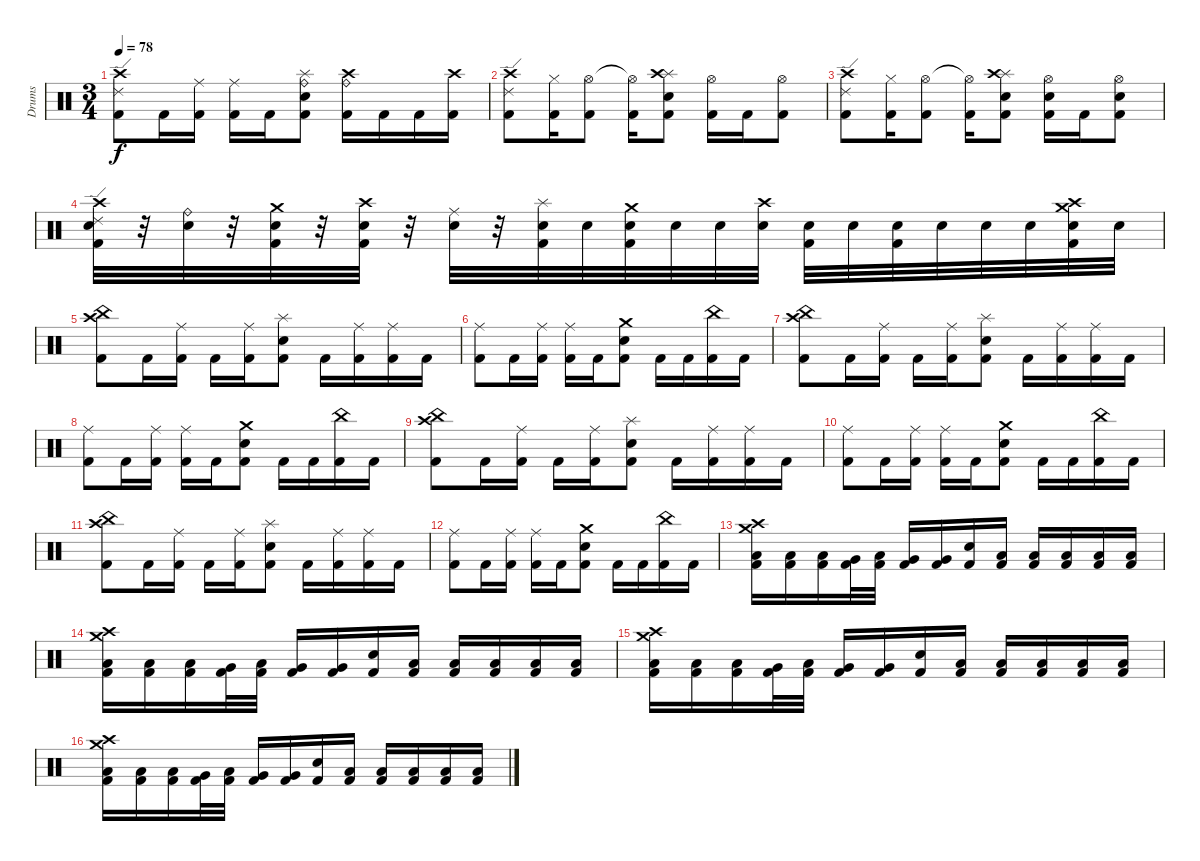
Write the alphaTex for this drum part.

\track ("Drums" "Drums") {instrument percussion}
\staff {score}
\articulation defaults
\ts (3 4)
\tempo 78
\clef neutral
\ks c
("Crash high (hit)" "Ride (edge) 2" "Kick (hit) 2").8{dy f} "Kick (hit) 2".16 ("Ride (middle)" "Kick (hit) 2").16 ("Ride (middle)" "Kick (hit) 2").16 "Kick (hit) 2".16 ("Ride (bell)" "Splash (hit)" "Snare (hit) 2" "Kick (hit) 2").8 ("Ride (bell)" "Crash high (hit)" "Kick (hit) 2").16 "Kick (hit) 2".16 "Kick (hit) 2".16 ("Crash high (hit)" "Kick (hit) 2").16 |
("Crash high (hit)" "Ride (edge) 2" "Kick (hit) 2").8 ("Hi-Hat (closed)" "Kick (hit) 2").16 ("Hi-Hat (open)" "Kick (hit) 2").8 ("Hi-Hat (open)"{t} "Kick (hit) 2").16 ("Splash (hit)" "Crash high (hit)" "Snare (hit) 2" "Kick (hit) 2").8 ("Hi-Hat (open)" "Kick (hit) 2").16 "Kick (hit) 2".16 ("Hi-Hat (open)" "Kick (hit) 2").8 |
("Crash high (hit)" "Ride (edge) 2" "Kick (hit) 2").8 ("Hi-Hat (closed)" "Kick (hit) 2").16 ("Hi-Hat (open)" "Kick (hit) 2").8 ("Hi-Hat (open)"{t} "Kick (hit) 2").16 ("Splash (hit)" "Crash high (hit)" "Snare (hit) 2" "Kick (hit) 2").8 ("Hi-Hat (open)" "Snare (hit) 2" "Kick (hit) 2").16 "Kick (hit) 2".16 ("Hi-Hat (open)" "Snare (hit) 2" "Kick (hit) 2").8 |
("Crash high (hit)" "Ride (edge) 2" "Snare (hit) 2" "Kick (hit) 2").32 r.32 ("Ride (bell)" "Snare (hit) 2").32 r.32 ("Crash medium (hit)" "Snare (hit) 2" "Kick (hit) 2").32 r.32 ("Crash high (hit)" "Snare (hit) 2" "Kick (hit) 2").32 r.32 ("Ride (middle)" "Snare (hit) 2").32 r.32 ("Splash (hit)" "Snare (hit) 2" "Kick (hit) 2").32 "Snare (hit) 2".32 ("Crash medium (hit)" "Snare (hit) 2" "Kick (hit) 2").32 "Snare (hit) 2".32 "Snare (hit) 2".32 ("Crash high (hit)" "Snare (hit) 2").32 ("Snare (hit) 2" "Kick (hit) 2").32 "Snare (hit) 2".32 ("Snare (hit) 2" "Kick (hit) 2").32 "Snare (hit) 2".32 "Snare (hit) 2".32 "Snare (hit) 2".32 ("Crash high (hit)" "Crash medium (hit)" "Snare (hit) 2" "Kick (hit) 2").32 "Snare (hit) 2".32 |
("China (hit)" "Crash high (hit)" "Kick (hit) 2").8 "Kick (hit) 2".16 ("Ride (middle)" "Kick (hit) 2").16 "Kick (hit) 2".16 ("Ride (middle)" "Kick (hit) 2").16 ("Splash (hit)" "Snare (hit) 2" "Kick (hit) 2").8 "Kick (hit) 2".16 ("Ride (middle)" "Kick (hit) 2").16 ("Ride (middle)" "Kick (hit) 2").16 "Kick (hit) 2".16 |
("Ride (middle)" "Kick (hit) 2").8 "Kick (hit) 2".16 ("Ride (middle)" "Kick (hit) 2").16 ("Ride (middle)" "Kick (hit) 2").16 "Kick (hit) 2".16 ("Crash medium (hit)" "Snare (hit) 2" "Kick (hit) 2").8 "Kick (hit) 2".16 "Kick (hit) 2".16 ("China (hit)" "Kick (hit) 2").16 "Kick (hit) 2".16 |
("China (hit)" "Crash high (hit)" "Kick (hit) 2").8 "Kick (hit) 2".16 ("Ride (middle)" "Kick (hit) 2").16 "Kick (hit) 2".16 ("Ride (middle)" "Kick (hit) 2").16 ("Splash (hit)" "Snare (hit) 2" "Kick (hit) 2").8 "Kick (hit) 2".16 ("Ride (middle)" "Kick (hit) 2").16 ("Ride (middle)" "Kick (hit) 2").16 "Kick (hit) 2".16 |
("Ride (middle)" "Kick (hit) 2").8 "Kick (hit) 2".16 ("Ride (middle)" "Kick (hit) 2").16 ("Ride (middle)" "Kick (hit) 2").16 "Kick (hit) 2".16 ("Crash medium (hit)" "Snare (hit) 2" "Kick (hit) 2").8 "Kick (hit) 2".16 "Kick (hit) 2".16 ("China (hit)" "Kick (hit) 2").16 "Kick (hit) 2".16 |
("China (hit)" "Crash high (hit)" "Kick (hit) 2").8 "Kick (hit) 2".16 ("Ride (middle)" "Kick (hit) 2").16 "Kick (hit) 2".16 ("Ride (middle)" "Kick (hit) 2").16 ("Splash (hit)" "Snare (hit) 2" "Kick (hit) 2").8 "Kick (hit) 2".16 ("Ride (middle)" "Kick (hit) 2").16 ("Ride (middle)" "Kick (hit) 2").16 "Kick (hit) 2".16 |
("Ride (middle)" "Kick (hit) 2").8 "Kick (hit) 2".16 ("Ride (middle)" "Kick (hit) 2").16 ("Ride (middle)" "Kick (hit) 2").16 "Kick (hit) 2".16 ("Crash medium (hit)" "Snare (hit) 2" "Kick (hit) 2").8 "Kick (hit) 2".16 "Kick (hit) 2".16 ("China (hit)" "Kick (hit) 2").16 "Kick (hit) 2".16 |
("China (hit)" "Crash high (hit)" "Kick (hit) 2").8 "Kick (hit) 2".16 ("Ride (middle)" "Kick (hit) 2").16 "Kick (hit) 2".16 ("Ride (middle)" "Kick (hit) 2").16 ("Splash (hit)" "Snare (hit) 2" "Kick (hit) 2").8 "Kick (hit) 2".16 ("Ride (middle)" "Kick (hit) 2").16 ("Ride (middle)" "Kick (hit) 2").16 "Kick (hit) 2".16 |
("Ride (middle)" "Kick (hit) 2").8 "Kick (hit) 2".16 ("Ride (middle)" "Kick (hit) 2").16 ("Ride (middle)" "Kick (hit) 2").16 "Kick (hit) 2".16 ("Crash medium (hit)" "Snare (hit) 2" "Kick (hit) 2").8 "Kick (hit) 2".16 "Kick (hit) 2".16 ("China (hit)" "Kick (hit) 2").16 "Kick (hit) 2".16 |
("Crash medium (hit)" "Crash high (hit)" "Low Floor Tom (hit)" "Kick (hit) 2").16 ("Low Floor Tom (hit)" "Kick (hit) 2").16 ("Low Floor Tom (hit)" "Kick (hit) 2").16 ("Very Low Tom (hit)" "Kick (hit) 2").32 ("Low Floor Tom (hit)" "Kick (hit) 2").32 ("Very Low Tom (hit)" "Kick (hit) 2").16 ("Very Low Tom (hit)" "Kick (hit) 2").16 ("Snare (hit) 2" "Kick (hit) 2").16 ("Low Floor Tom (hit)" "Kick (hit) 2").16 ("Low Floor Tom (hit)" "Kick (hit) 2").16 ("Low Floor Tom (hit)" "Kick (hit) 2").16 ("Low Floor Tom (hit)" "Kick (hit) 2").16 ("Low Floor Tom (hit)" "Kick (hit) 2").16 |
("Crash medium (hit)" "Crash high (hit)" "Low Floor Tom (hit)" "Kick (hit) 2").16 ("Low Floor Tom (hit)" "Kick (hit) 2").16 ("Low Floor Tom (hit)" "Kick (hit) 2").16 ("Very Low Tom (hit)" "Kick (hit) 2").32 ("Low Floor Tom (hit)" "Kick (hit) 2").32 ("Very Low Tom (hit)" "Kick (hit) 2").16 ("Very Low Tom (hit)" "Kick (hit) 2").16 ("Snare (hit) 2" "Kick (hit) 2").16 ("Low Floor Tom (hit)" "Kick (hit) 2").16 ("Low Floor Tom (hit)" "Kick (hit) 2").16 ("Low Floor Tom (hit)" "Kick (hit) 2").16 ("Low Floor Tom (hit)" "Kick (hit) 2").16 ("Low Floor Tom (hit)" "Kick (hit) 2").16 |
("Crash medium (hit)" "Crash high (hit)" "Low Floor Tom (hit)" "Kick (hit) 2").16 ("Low Floor Tom (hit)" "Kick (hit) 2").16 ("Low Floor Tom (hit)" "Kick (hit) 2").16 ("Very Low Tom (hit)" "Kick (hit) 2").32 ("Low Floor Tom (hit)" "Kick (hit) 2").32 ("Very Low Tom (hit)" "Kick (hit) 2").16 ("Very Low Tom (hit)" "Kick (hit) 2").16 ("Snare (hit) 2" "Kick (hit) 2").16 ("Low Floor Tom (hit)" "Kick (hit) 2").16 ("Low Floor Tom (hit)" "Kick (hit) 2").16 ("Low Floor Tom (hit)" "Kick (hit) 2").16 ("Low Floor Tom (hit)" "Kick (hit) 2").16 ("Low Floor Tom (hit)" "Kick (hit) 2").16 |
("Crash medium (hit)" "Crash high (hit)" "Low Floor Tom (hit)" "Kick (hit) 2").16 ("Low Floor Tom (hit)" "Kick (hit) 2").16 ("Low Floor Tom (hit)" "Kick (hit) 2").16 ("Very Low Tom (hit)" "Kick (hit) 2").32 ("Low Floor Tom (hit)" "Kick (hit) 2").32 ("Very Low Tom (hit)" "Kick (hit) 2").16 ("Very Low Tom (hit)" "Kick (hit) 2").16 ("Snare (hit) 2" "Kick (hit) 2").16 ("Low Floor Tom (hit)" "Kick (hit) 2").16 ("Low Floor Tom (hit)" "Kick (hit) 2").16 ("Low Floor Tom (hit)" "Kick (hit) 2").16 ("Low Floor Tom (hit)" "Kick (hit) 2").16 ("Low Floor Tom (hit)" "Kick (hit) 2").16
